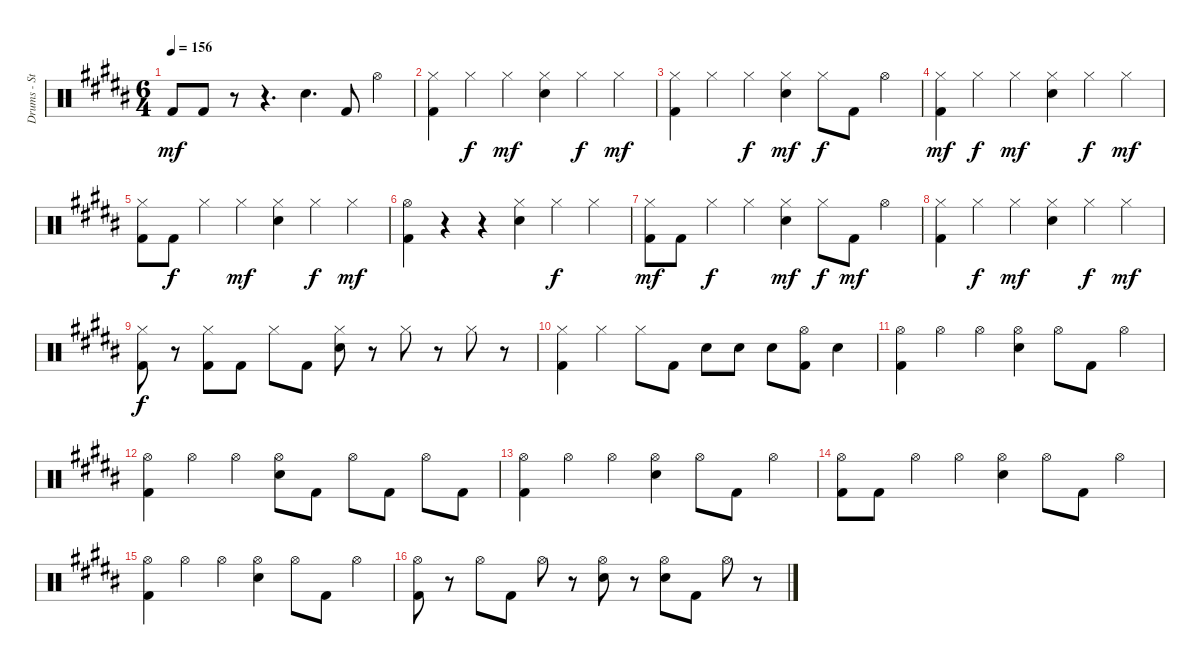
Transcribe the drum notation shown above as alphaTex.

\track ("Drums - Steve Judd" "Drums - St") {instrument percussion}
\staff {score}
\articulation defaults
\ts (6 4)
\tempo 156
\clef neutral
\ks b "Kick (hit) 2".8{dy mf} "Kick (hit) 2".8
r.8 r.4{d} "Electric Snare (hit)".4{d} "Kick (hit) 2".8 "Hi-Hat (open)".4 |
("Hi-Hat (closed)" "Kick (hit) 2").4 "Hi-Hat (closed)".4{dy f} "Hi-Hat (closed)".4{dy mf} ("Hi-Hat (closed)" "Electric Snare (hit)").4 "Hi-Hat (closed)".4{dy f} "Hi-Hat (closed)".4{dy mf} |
("Hi-Hat (closed)" "Kick (hit) 2").4 "Hi-Hat (closed)".4 "Hi-Hat (closed)".4{dy f} ("Hi-Hat (closed)" "Electric Snare (hit)").4{dy mf} "Hi-Hat (closed)".8{dy f} "Kick (hit) 2".8 "Hi-Hat (open)".4 |
("Hi-Hat (closed)" "Kick (hit) 2").4{dy mf} "Hi-Hat (closed)".4{dy f} "Hi-Hat (closed)".4{dy mf} ("Hi-Hat (closed)" "Electric Snare (hit)").4 "Hi-Hat (closed)".4{dy f} "Hi-Hat (closed)".4{dy mf} |
("Hi-Hat (closed)" "Kick (hit) 2").8 "Kick (hit) 2".8{dy f} "Hi-Hat (closed)".4 "Hi-Hat (closed)".4{dy mf} ("Hi-Hat (closed)" "Electric Snare (hit)").4 "Hi-Hat (closed)".4{dy f} "Hi-Hat (closed)".4{dy mf} |
("Hi-Hat (open)" "Kick (hit) 2").4 r.4 r.4 ("Hi-Hat (closed)" "Electric Snare (hit)").4 "Hi-Hat (closed)".4{dy f} "Hi-Hat (closed)".4 |
("Hi-Hat (closed)" "Kick (hit) 2").8{dy mf} "Kick (hit) 2".8 "Hi-Hat (closed)".4{dy f} "Hi-Hat (closed)".4 ("Hi-Hat (closed)" "Electric Snare (hit)").4{dy mf} "Hi-Hat (closed)".8{dy f} "Kick (hit) 2".8{dy mf} "Hi-Hat (open)".4 |
("Hi-Hat (closed)" "Kick (hit) 2").4 "Hi-Hat (closed)".4{dy f} "Hi-Hat (closed)".4{dy mf} ("Hi-Hat (closed)" "Electric Snare (hit)").4 "Hi-Hat (closed)".4{dy f} "Hi-Hat (closed)".4{dy mf} |
("Hi-Hat (closed)" "Kick (hit) 2").8{dy f} r.8 ("Hi-Hat (closed)" "Kick (hit) 2").8 "Kick (hit) 2".8 "Hi-Hat (closed)".8 "Kick (hit) 2".8 ("Hi-Hat (closed)" "Electric Snare (hit)").8 r.8 "Hi-Hat (closed)".8 r.8 "Hi-Hat (closed)".8 r.8 |
("Hi-Hat (closed)" "Kick (hit) 2").4 "Hi-Hat (closed)".4 "Hi-Hat (closed)".8 "Kick (hit) 2".8 "Electric Snare (hit)".8 "Electric Snare (hit)".8 "Electric Snare (hit)".8 ("Hi-Hat (open)" "Kick (hit) 2").8 "Electric Snare (hit)".4 |
("Hi-Hat (open)" "Kick (hit) 2").4 "Hi-Hat (open)".4 "Hi-Hat (open)".4 ("Hi-Hat (open)" "Electric Snare (hit)").4 "Hi-Hat (open)".8 "Kick (hit) 2".8 "Hi-Hat (open)".4 |
("Hi-Hat (open)" "Kick (hit) 2").4 "Hi-Hat (open)".4 "Hi-Hat (open)".4 ("Hi-Hat (open)" "Electric Snare (hit)").8 "Kick (hit) 2".8 "Hi-Hat (open)".8 "Kick (hit) 2".8 "Hi-Hat (open)".8 "Kick (hit) 2".8 |
("Hi-Hat (open)" "Kick (hit) 2").4 "Hi-Hat (open)".4 "Hi-Hat (open)".4 ("Hi-Hat (open)" "Electric Snare (hit)").4 "Hi-Hat (open)".8 "Kick (hit) 2".8 "Hi-Hat (open)".4 |
("Hi-Hat (open)" "Kick (hit) 2").8 "Kick (hit) 2".8 "Hi-Hat (open)".4 "Hi-Hat (open)".4 ("Hi-Hat (open)" "Electric Snare (hit)").4 "Hi-Hat (open)".8 "Kick (hit) 2".8 "Hi-Hat (open)".4 |
("Hi-Hat (open)" "Kick (hit) 2").4 "Hi-Hat (open)".4 "Hi-Hat (open)".4 ("Hi-Hat (open)" "Electric Snare (hit)").4 "Hi-Hat (open)".8 "Kick (hit) 2".8 "Hi-Hat (open)".4 |
("Hi-Hat (open)" "Kick (hit) 2").8 r.8 "Hi-Hat (open)".8 "Kick (hit) 2".8 "Hi-Hat (open)".8 r.8 ("Hi-Hat (open)" "Electric Snare (hit)").8 r.8 ("Hi-Hat (open)" "Electric Snare (hit)").8 "Kick (hit) 2".8 "Hi-Hat (open)".8 r.8
